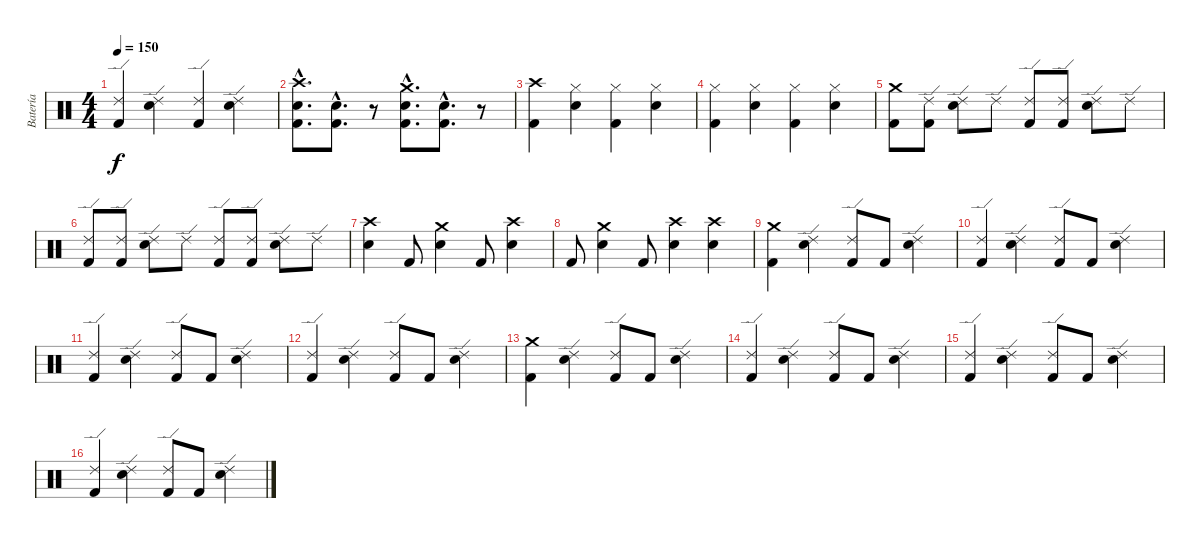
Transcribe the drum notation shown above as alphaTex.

\track ("Batería" "Batería") {instrument percussion}
\staff {score}
\articulation defaults
\ts (4 4)
\tempo 150
\clef neutral
\ks c
("Ride (edge) 2" "Kick (hit) 2").4{dy f} ("Ride (edge) 2" "Electric Snare (hit)").4 ("Ride (edge) 2" "Kick (hit) 2").4 ("Ride (edge) 2" "Electric Snare (hit)").4 |
("Crash high (hit)"{hac} "Electric Snare (hit)"{hac} "Kick (hit) 2"{hac}).8{d} ("Electric Snare (hit)"{hac} "Kick (hit) 2"{hac}).8{d} r.8 ("Crash medium (hit)"{hac} "Electric Snare (hit)"{hac} "Kick (hit) 2"{hac}).8{d} ("Electric Snare (hit)"{hac} "Kick (hit) 2"{hac}).8{d} r.8 |
("Crash high (hit)" "Kick (hit) 2").4 ("Hi-Hat (closed)" "Electric Snare (hit)").4 ("Hi-Hat (closed)" "Kick (hit) 2").4 ("Hi-Hat (closed)" "Electric Snare (hit)").4 |
("Hi-Hat (closed)" "Kick (hit) 2").4 ("Hi-Hat (closed)" "Electric Snare (hit)").4 ("Hi-Hat (closed)" "Kick (hit) 2").4 ("Hi-Hat (closed)" "Electric Snare (hit)").4 |
("Crash medium (hit)" "Kick (hit) 2").8 ("Ride (edge) 2" "Kick (hit) 2").8 ("Ride (edge) 2" "Electric Snare (hit)").8 "Ride (edge) 2".8 ("Ride (edge) 2" "Kick (hit) 2").8 ("Ride (edge) 2" "Kick (hit) 2").8 ("Ride (edge) 2" "Electric Snare (hit)").8 "Ride (edge) 2".8 |
("Ride (edge) 2" "Kick (hit) 2").8 ("Ride (edge) 2" "Kick (hit) 2").8 ("Ride (edge) 2" "Electric Snare (hit)").8 "Ride (edge) 2".8 ("Ride (edge) 2" "Kick (hit) 2").8 ("Ride (edge) 2" "Kick (hit) 2").8 ("Ride (edge) 2" "Electric Snare (hit)").8 "Ride (edge) 2".8 |
("Crash high (hit)" "Electric Snare (hit)").4 "Kick (hit) 2".8 ("Crash medium (hit)" "Electric Snare (hit)").4 "Kick (hit) 2".8 ("Crash high (hit)" "Electric Snare (hit)").4 |
"Kick (hit) 2".8 ("Crash medium (hit)" "Electric Snare (hit)").4 "Kick (hit) 2".8 ("Crash high (hit)" "Electric Snare (hit)").4 ("Crash high (hit)" "Electric Snare (hit)").4 |
("Crash medium (hit)" "Kick (hit) 2").4 ("Ride (edge) 2" "Electric Snare (hit)").4 ("Ride (edge) 2" "Kick (hit) 2").8 "Kick (hit) 2".8 ("Ride (edge) 2" "Electric Snare (hit)").4 |
("Ride (edge) 2" "Kick (hit) 2").4 ("Ride (edge) 2" "Electric Snare (hit)").4 ("Ride (edge) 2" "Kick (hit) 2").8 "Kick (hit) 2".8 ("Ride (edge) 2" "Electric Snare (hit)").4 |
("Ride (edge) 2" "Kick (hit) 2").4 ("Ride (edge) 2" "Electric Snare (hit)").4 ("Ride (edge) 2" "Kick (hit) 2").8 "Kick (hit) 2".8 ("Ride (edge) 2" "Electric Snare (hit)").4 |
("Ride (edge) 2" "Kick (hit) 2").4 ("Ride (edge) 2" "Electric Snare (hit)").4 ("Ride (edge) 2" "Kick (hit) 2").8 "Kick (hit) 2".8 ("Ride (edge) 2" "Electric Snare (hit)").4 |
("Crash medium (hit)" "Kick (hit) 2").4 ("Ride (edge) 2" "Electric Snare (hit)").4 ("Ride (edge) 2" "Kick (hit) 2").8 "Kick (hit) 2".8 ("Ride (edge) 2" "Electric Snare (hit)").4 |
("Ride (edge) 2" "Kick (hit) 2").4 ("Ride (edge) 2" "Electric Snare (hit)").4 ("Ride (edge) 2" "Kick (hit) 2").8 "Kick (hit) 2".8 ("Ride (edge) 2" "Electric Snare (hit)").4 |
("Ride (edge) 2" "Kick (hit) 2").4 ("Ride (edge) 2" "Electric Snare (hit)").4 ("Ride (edge) 2" "Kick (hit) 2").8 "Kick (hit) 2".8 ("Ride (edge) 2" "Electric Snare (hit)").4 |
("Ride (edge) 2" "Kick (hit) 2").4 ("Ride (edge) 2" "Electric Snare (hit)").4 ("Ride (edge) 2" "Kick (hit) 2").8 "Kick (hit) 2".8 ("Ride (edge) 2" "Electric Snare (hit)").4
